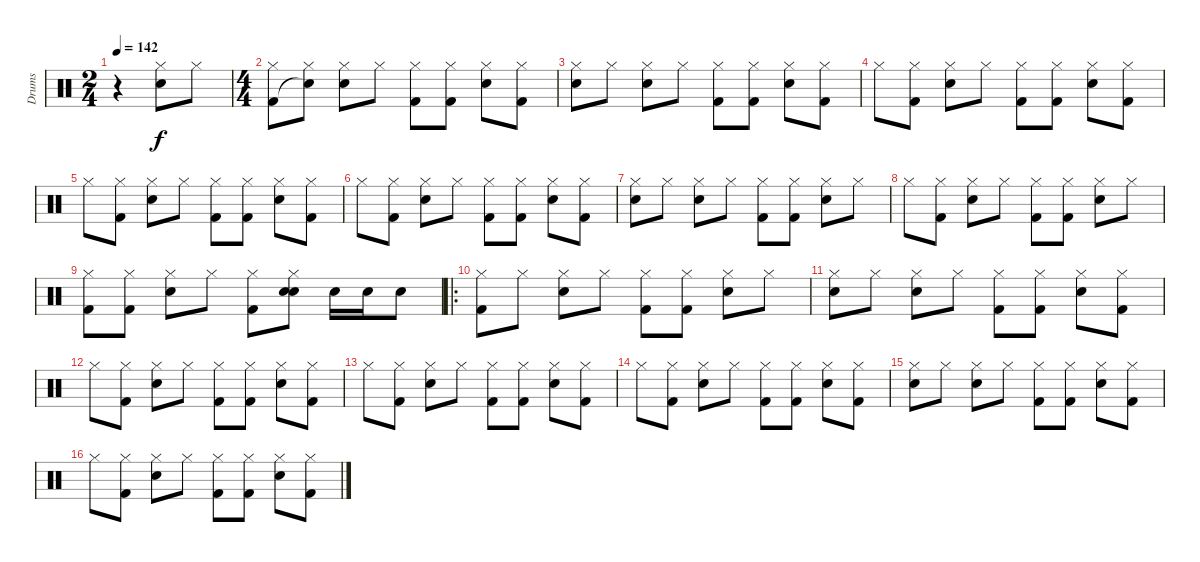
\track ("Drums" "Drums") {instrument percussion}
\staff {score}
\articulation defaults
\ts (2 4)
\tempo 142
\clef neutral
\ks c
r.4{dy f} ("Hi-Hat (closed)" "Snare (hit) 2").8 "Hi-Hat (closed)".8 |
\ts (4 4)
("Hi-Hat (closed)" "Kick (hit) 2").8 ("Hi-Hat (closed)" "Snare (hit)"{t}).8 ("Hi-Hat (closed)" "Snare (hit) 2").8 "Hi-Hat (closed)".8 ("Hi-Hat (closed)" "Kick (hit) 2").8 ("Hi-Hat (closed)" "Kick (hit) 2").8 ("Hi-Hat (closed)" "Snare (hit) 2").8 ("Hi-Hat (closed)" "Kick (hit) 2").8 |
("Hi-Hat (closed)" "Snare (hit) 2").8 "Hi-Hat (closed)".8 ("Hi-Hat (closed)" "Snare (hit) 2").8 "Hi-Hat (closed)".8 ("Hi-Hat (closed)" "Kick (hit) 2").8 ("Hi-Hat (closed)" "Kick (hit) 2").8 ("Hi-Hat (closed)" "Snare (hit) 2").8 ("Hi-Hat (closed)" "Kick (hit) 2").8 |
"Hi-Hat (closed)".8 ("Hi-Hat (closed)" "Kick (hit) 2").8 ("Hi-Hat (closed)" "Snare (hit) 2").8 "Hi-Hat (closed)".8 ("Hi-Hat (closed)" "Kick (hit) 2").8 ("Hi-Hat (closed)" "Kick (hit) 2").8 ("Hi-Hat (closed)" "Snare (hit) 2").8 ("Hi-Hat (closed)" "Kick (hit) 2").8 |
"Hi-Hat (closed)".8 ("Hi-Hat (closed)" "Kick (hit) 2").8 ("Hi-Hat (closed)" "Snare (hit) 2").8 "Hi-Hat (closed)".8 ("Hi-Hat (closed)" "Kick (hit) 2").8 ("Hi-Hat (closed)" "Kick (hit) 2").8 ("Hi-Hat (closed)" "Snare (hit) 2").8 ("Hi-Hat (closed)" "Kick (hit) 2").8 |
"Hi-Hat (closed)".8 ("Hi-Hat (closed)" "Kick (hit) 2").8 ("Hi-Hat (closed)" "Snare (hit) 2").8 "Hi-Hat (closed)".8 ("Hi-Hat (closed)" "Kick (hit) 2").8 ("Hi-Hat (closed)" "Kick (hit) 2").8 ("Hi-Hat (closed)" "Snare (hit) 2").8 ("Hi-Hat (closed)" "Kick (hit) 2").8 |
("Hi-Hat (closed)" "Snare (hit) 2").8 "Hi-Hat (closed)".8 ("Hi-Hat (closed)" "Snare (hit) 2").8 "Hi-Hat (closed)".8 ("Hi-Hat (closed)" "Kick (hit) 2").8 ("Hi-Hat (closed)" "Kick (hit) 2").8 ("Hi-Hat (closed)" "Snare (hit) 2").8 "Hi-Hat (closed)".8 |
"Hi-Hat (closed)".8 ("Hi-Hat (closed)" "Kick (hit) 2").8 ("Hi-Hat (closed)" "Snare (hit) 2").8 "Hi-Hat (closed)".8 ("Hi-Hat (closed)" "Kick (hit) 2").8 ("Hi-Hat (closed)" "Kick (hit) 2").8 ("Hi-Hat (closed)" "Snare (hit) 2").8 "Hi-Hat (closed)".8 |
("Hi-Hat (closed)" "Kick (hit) 2").8 ("Hi-Hat (closed)" "Kick (hit) 2").8 ("Hi-Hat (closed)" "Snare (hit) 2").8 "Hi-Hat (closed)".8 ("Hi-Hat (closed)" "Kick (hit) 2").8 ("Hi-Hat (closed)" "Snare (hit) 2" "Snare (hit)").8 "Snare (hit) 2".16 "Snare (hit) 2".16 "Snare (hit) 2".8 |
\ro
("Hi-Hat (closed)" "Kick (hit) 2").8 "Hi-Hat (closed)".8 ("Hi-Hat (closed)" "Snare (hit) 2").8 "Hi-Hat (closed)".8 ("Hi-Hat (closed)" "Kick (hit) 2").8 ("Hi-Hat (closed)" "Kick (hit) 2").8 ("Hi-Hat (closed)" "Snare (hit) 2").8 "Hi-Hat (closed)".8 |
("Hi-Hat (closed)" "Snare (hit) 2").8 "Hi-Hat (closed)".8 ("Hi-Hat (closed)" "Snare (hit) 2").8 "Hi-Hat (closed)".8 ("Hi-Hat (closed)" "Kick (hit) 2").8 ("Hi-Hat (closed)" "Kick (hit) 2").8 ("Hi-Hat (closed)" "Snare (hit) 2").8 ("Hi-Hat (closed)" "Kick (hit) 2").8 |
"Hi-Hat (closed)".8 ("Hi-Hat (closed)" "Kick (hit) 2").8 ("Hi-Hat (closed)" "Snare (hit) 2").8 "Hi-Hat (closed)".8 ("Hi-Hat (closed)" "Kick (hit) 2").8 ("Hi-Hat (closed)" "Kick (hit) 2").8 ("Hi-Hat (closed)" "Snare (hit) 2").8 ("Hi-Hat (closed)" "Kick (hit) 2").8 |
"Hi-Hat (closed)".8 ("Hi-Hat (closed)" "Kick (hit) 2").8 ("Hi-Hat (closed)" "Snare (hit) 2").8 "Hi-Hat (closed)".8 ("Hi-Hat (closed)" "Kick (hit) 2").8 ("Hi-Hat (closed)" "Kick (hit) 2").8 ("Hi-Hat (closed)" "Snare (hit) 2").8 ("Hi-Hat (closed)" "Kick (hit) 2").8 |
"Hi-Hat (closed)".8 ("Hi-Hat (closed)" "Kick (hit) 2").8 ("Hi-Hat (closed)" "Snare (hit) 2").8 "Hi-Hat (closed)".8 ("Hi-Hat (closed)" "Kick (hit) 2").8 ("Hi-Hat (closed)" "Kick (hit) 2").8 ("Hi-Hat (closed)" "Snare (hit) 2").8 ("Hi-Hat (closed)" "Kick (hit) 2").8 |
("Hi-Hat (closed)" "Snare (hit) 2").8 "Hi-Hat (closed)".8 ("Hi-Hat (closed)" "Snare (hit) 2").8 "Hi-Hat (closed)".8 ("Hi-Hat (closed)" "Kick (hit) 2").8 ("Hi-Hat (closed)" "Kick (hit) 2").8 ("Hi-Hat (closed)" "Snare (hit) 2").8 ("Hi-Hat (closed)" "Kick (hit) 2").8 |
"Hi-Hat (closed)".8 ("Hi-Hat (closed)" "Kick (hit) 2").8 ("Hi-Hat (closed)" "Snare (hit) 2").8 "Hi-Hat (closed)".8 ("Hi-Hat (closed)" "Kick (hit) 2").8 ("Hi-Hat (closed)" "Kick (hit) 2").8 ("Hi-Hat (closed)" "Snare (hit) 2").8 ("Hi-Hat (closed)" "Kick (hit) 2").8
